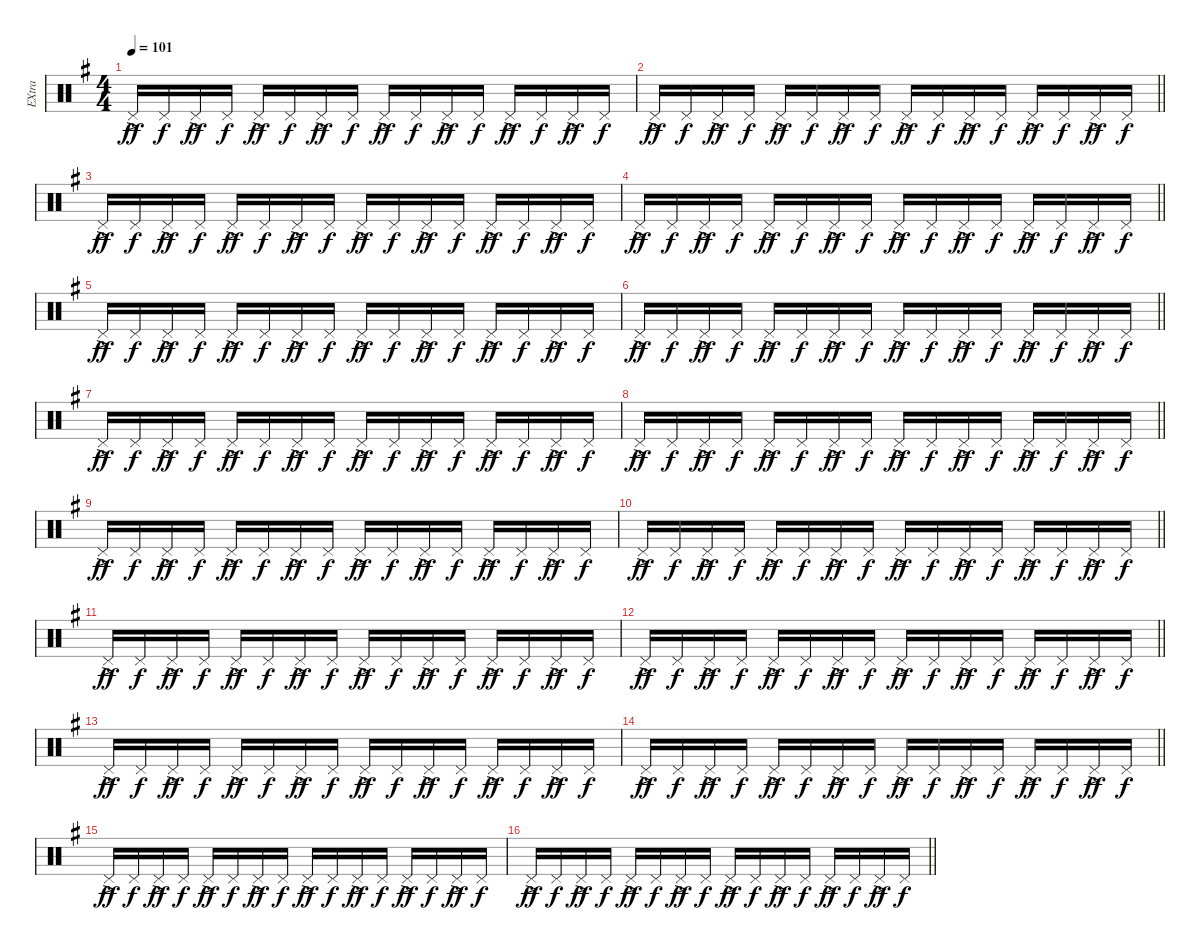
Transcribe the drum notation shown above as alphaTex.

\track ("EXtra" "EXtra") {instrument percussion}
\staff {score}
\articulation defaults
\ts (4 4)
\tempo 101
\clef neutral
\ks g "Pedal Hi-Hat (hit)"{ac}.16{dy ff} "Pedal Hi-Hat (hit)".16{dy f} "Pedal Hi-Hat (hit)"{ac}.16{dy ff} "Pedal Hi-Hat (hit)".16{dy f} "Pedal Hi-Hat (hit)"{ac}.16{dy ff} "Pedal Hi-Hat (hit)".16{dy f} "Pedal Hi-Hat (hit)"{ac}.16{dy ff} "Pedal Hi-Hat (hit)".16{dy f} "Pedal Hi-Hat (hit)"{ac}.16{dy ff} "Pedal Hi-Hat (hit)".16{dy f} "Pedal Hi-Hat (hit)"{ac}.16{dy ff} "Pedal Hi-Hat (hit)".16{dy f} "Pedal Hi-Hat (hit)"{ac}.16{dy ff} "Pedal Hi-Hat (hit)".16{dy f} "Pedal Hi-Hat (hit)"{ac}.16{dy ff} "Pedal Hi-Hat (hit)".16{dy f}
|
\barLineRight lightlight "Pedal Hi-Hat (hit)"{ac}.16{dy ff} "Pedal Hi-Hat (hit)".16{dy f} "Pedal Hi-Hat (hit)"{ac}.16{dy ff} "Pedal Hi-Hat (hit)".16{dy f} "Pedal Hi-Hat (hit)"{ac}.16{dy ff} "Pedal Hi-Hat (hit)".16{dy f} "Pedal Hi-Hat (hit)"{ac}.16{dy ff} "Pedal Hi-Hat (hit)".16{dy f} "Pedal Hi-Hat (hit)"{ac}.16{dy ff} "Pedal Hi-Hat (hit)".16{dy f} "Pedal Hi-Hat (hit)"{ac}.16{dy ff} "Pedal Hi-Hat (hit)".16{dy f} "Pedal Hi-Hat (hit)"{ac}.16{dy ff} "Pedal Hi-Hat (hit)".16{dy f} "Pedal Hi-Hat (hit)"{ac}.16{dy ff} "Pedal Hi-Hat (hit)".16{dy f}
|
"Pedal Hi-Hat (hit)"{ac}.16{dy ff} "Pedal Hi-Hat (hit)".16{dy f} "Pedal Hi-Hat (hit)"{ac}.16{dy ff} "Pedal Hi-Hat (hit)".16{dy f} "Pedal Hi-Hat (hit)"{ac}.16{dy ff} "Pedal Hi-Hat (hit)".16{dy f} "Pedal Hi-Hat (hit)"{ac}.16{dy ff} "Pedal Hi-Hat (hit)".16{dy f} "Pedal Hi-Hat (hit)"{ac}.16{dy ff} "Pedal Hi-Hat (hit)".16{dy f} "Pedal Hi-Hat (hit)"{ac}.16{dy ff} "Pedal Hi-Hat (hit)".16{dy f} "Pedal Hi-Hat (hit)"{ac}.16{dy ff} "Pedal Hi-Hat (hit)".16{dy f} "Pedal Hi-Hat (hit)"{ac}.16{dy ff} "Pedal Hi-Hat (hit)".16{dy f} |
\barLineRight lightlight "Pedal Hi-Hat (hit)"{ac}.16{dy ff} "Pedal Hi-Hat (hit)".16{dy f} "Pedal Hi-Hat (hit)"{ac}.16{dy ff} "Pedal Hi-Hat (hit)".16{dy f} "Pedal Hi-Hat (hit)"{ac}.16{dy ff} "Pedal Hi-Hat (hit)".16{dy f} "Pedal Hi-Hat (hit)"{ac}.16{dy ff} "Pedal Hi-Hat (hit)".16{dy f} "Pedal Hi-Hat (hit)"{ac}.16{dy ff} "Pedal Hi-Hat (hit)".16{dy f} "Pedal Hi-Hat (hit)"{ac}.16{dy ff} "Pedal Hi-Hat (hit)".16{dy f} "Pedal Hi-Hat (hit)"{ac}.16{dy ff} "Pedal Hi-Hat (hit)".16{dy f} "Pedal Hi-Hat (hit)"{ac}.16{dy ff} "Pedal Hi-Hat (hit)".16{dy f}
|
"Pedal Hi-Hat (hit)"{ac}.16{dy ff} "Pedal Hi-Hat (hit)".16{dy f} "Pedal Hi-Hat (hit)"{ac}.16{dy ff} "Pedal Hi-Hat (hit)".16{dy f} "Pedal Hi-Hat (hit)"{ac}.16{dy ff} "Pedal Hi-Hat (hit)".16{dy f} "Pedal Hi-Hat (hit)"{ac}.16{dy ff} "Pedal Hi-Hat (hit)".16{dy f} "Pedal Hi-Hat (hit)"{ac}.16{dy ff} "Pedal Hi-Hat (hit)".16{dy f} "Pedal Hi-Hat (hit)"{ac}.16{dy ff} "Pedal Hi-Hat (hit)".16{dy f} "Pedal Hi-Hat (hit)"{ac}.16{dy ff} "Pedal Hi-Hat (hit)".16{dy f} "Pedal Hi-Hat (hit)"{ac}.16{dy ff} "Pedal Hi-Hat (hit)".16{dy f} |
\barLineRight lightlight "Pedal Hi-Hat (hit)"{ac}.16{dy ff} "Pedal Hi-Hat (hit)".16{dy f} "Pedal Hi-Hat (hit)"{ac}.16{dy ff} "Pedal Hi-Hat (hit)".16{dy f} "Pedal Hi-Hat (hit)"{ac}.16{dy ff} "Pedal Hi-Hat (hit)".16{dy f} "Pedal Hi-Hat (hit)"{ac}.16{dy ff} "Pedal Hi-Hat (hit)".16{dy f} "Pedal Hi-Hat (hit)"{ac}.16{dy ff} "Pedal Hi-Hat (hit)".16{dy f} "Pedal Hi-Hat (hit)"{ac}.16{dy ff} "Pedal Hi-Hat (hit)".16{dy f} "Pedal Hi-Hat (hit)"{ac}.16{dy ff} "Pedal Hi-Hat (hit)".16{dy f} "Pedal Hi-Hat (hit)"{ac}.16{dy ff} "Pedal Hi-Hat (hit)".16{dy f}
|
"Pedal Hi-Hat (hit)"{ac}.16{dy ff} "Pedal Hi-Hat (hit)".16{dy f} "Pedal Hi-Hat (hit)"{ac}.16{dy ff} "Pedal Hi-Hat (hit)".16{dy f} "Pedal Hi-Hat (hit)"{ac}.16{dy ff} "Pedal Hi-Hat (hit)".16{dy f} "Pedal Hi-Hat (hit)"{ac}.16{dy ff} "Pedal Hi-Hat (hit)".16{dy f} "Pedal Hi-Hat (hit)"{ac}.16{dy ff} "Pedal Hi-Hat (hit)".16{dy f} "Pedal Hi-Hat (hit)"{ac}.16{dy ff} "Pedal Hi-Hat (hit)".16{dy f} "Pedal Hi-Hat (hit)"{ac}.16{dy ff} "Pedal Hi-Hat (hit)".16{dy f} "Pedal Hi-Hat (hit)"{ac}.16{dy ff} "Pedal Hi-Hat (hit)".16{dy f} |
\barLineRight lightlight "Pedal Hi-Hat (hit)"{ac}.16{dy ff} "Pedal Hi-Hat (hit)".16{dy f} "Pedal Hi-Hat (hit)"{ac}.16{dy ff} "Pedal Hi-Hat (hit)".16{dy f} "Pedal Hi-Hat (hit)"{ac}.16{dy ff} "Pedal Hi-Hat (hit)".16{dy f} "Pedal Hi-Hat (hit)"{ac}.16{dy ff} "Pedal Hi-Hat (hit)".16{dy f} "Pedal Hi-Hat (hit)"{ac}.16{dy ff} "Pedal Hi-Hat (hit)".16{dy f} "Pedal Hi-Hat (hit)"{ac}.16{dy ff} "Pedal Hi-Hat (hit)".16{dy f} "Pedal Hi-Hat (hit)"{ac}.16{dy ff} "Pedal Hi-Hat (hit)".16{dy f} "Pedal Hi-Hat (hit)"{ac}.16{dy ff} "Pedal Hi-Hat (hit)".16{dy f}
|
"Pedal Hi-Hat (hit)"{ac}.16{dy ff} "Pedal Hi-Hat (hit)".16{dy f} "Pedal Hi-Hat (hit)"{ac}.16{dy ff} "Pedal Hi-Hat (hit)".16{dy f} "Pedal Hi-Hat (hit)"{ac}.16{dy ff} "Pedal Hi-Hat (hit)".16{dy f} "Pedal Hi-Hat (hit)"{ac}.16{dy ff} "Pedal Hi-Hat (hit)".16{dy f} "Pedal Hi-Hat (hit)"{ac}.16{dy ff} "Pedal Hi-Hat (hit)".16{dy f} "Pedal Hi-Hat (hit)"{ac}.16{dy ff} "Pedal Hi-Hat (hit)".16{dy f} "Pedal Hi-Hat (hit)"{ac}.16{dy ff} "Pedal Hi-Hat (hit)".16{dy f} "Pedal Hi-Hat (hit)"{ac}.16{dy ff} "Pedal Hi-Hat (hit)".16{dy f} |
\barLineRight lightlight "Pedal Hi-Hat (hit)"{ac}.16{dy ff} "Pedal Hi-Hat (hit)".16{dy f} "Pedal Hi-Hat (hit)"{ac}.16{dy ff} "Pedal Hi-Hat (hit)".16{dy f} "Pedal Hi-Hat (hit)"{ac}.16{dy ff} "Pedal Hi-Hat (hit)".16{dy f} "Pedal Hi-Hat (hit)"{ac}.16{dy ff} "Pedal Hi-Hat (hit)".16{dy f} "Pedal Hi-Hat (hit)"{ac}.16{dy ff} "Pedal Hi-Hat (hit)".16{dy f} "Pedal Hi-Hat (hit)"{ac}.16{dy ff} "Pedal Hi-Hat (hit)".16{dy f} "Pedal Hi-Hat (hit)"{ac}.16{dy ff} "Pedal Hi-Hat (hit)".16{dy f} "Pedal Hi-Hat (hit)"{ac}.16{dy ff} "Pedal Hi-Hat (hit)".16{dy f}
|
"Pedal Hi-Hat (hit)"{ac}.16{dy ff} "Pedal Hi-Hat (hit)".16{dy f} "Pedal Hi-Hat (hit)"{ac}.16{dy ff} "Pedal Hi-Hat (hit)".16{dy f} "Pedal Hi-Hat (hit)"{ac}.16{dy ff} "Pedal Hi-Hat (hit)".16{dy f} "Pedal Hi-Hat (hit)"{ac}.16{dy ff} "Pedal Hi-Hat (hit)".16{dy f} "Pedal Hi-Hat (hit)"{ac}.16{dy ff} "Pedal Hi-Hat (hit)".16{dy f} "Pedal Hi-Hat (hit)"{ac}.16{dy ff} "Pedal Hi-Hat (hit)".16{dy f} "Pedal Hi-Hat (hit)"{ac}.16{dy ff} "Pedal Hi-Hat (hit)".16{dy f} "Pedal Hi-Hat (hit)"{ac}.16{dy ff} "Pedal Hi-Hat (hit)".16{dy f} |
\barLineRight lightlight "Pedal Hi-Hat (hit)"{ac}.16{dy ff} "Pedal Hi-Hat (hit)".16{dy f} "Pedal Hi-Hat (hit)"{ac}.16{dy ff} "Pedal Hi-Hat (hit)".16{dy f} "Pedal Hi-Hat (hit)"{ac}.16{dy ff} "Pedal Hi-Hat (hit)".16{dy f} "Pedal Hi-Hat (hit)"{ac}.16{dy ff} "Pedal Hi-Hat (hit)".16{dy f} "Pedal Hi-Hat (hit)"{ac}.16{dy ff} "Pedal Hi-Hat (hit)".16{dy f} "Pedal Hi-Hat (hit)"{ac}.16{dy ff} "Pedal Hi-Hat (hit)".16{dy f} "Pedal Hi-Hat (hit)"{ac}.16{dy ff} "Pedal Hi-Hat (hit)".16{dy f} "Pedal Hi-Hat (hit)"{ac}.16{dy ff} "Pedal Hi-Hat (hit)".16{dy f}
|
"Pedal Hi-Hat (hit)"{ac}.16{dy ff} "Pedal Hi-Hat (hit)".16{dy f} "Pedal Hi-Hat (hit)"{ac}.16{dy ff} "Pedal Hi-Hat (hit)".16{dy f} "Pedal Hi-Hat (hit)"{ac}.16{dy ff} "Pedal Hi-Hat (hit)".16{dy f} "Pedal Hi-Hat (hit)"{ac}.16{dy ff} "Pedal Hi-Hat (hit)".16{dy f} "Pedal Hi-Hat (hit)"{ac}.16{dy ff} "Pedal Hi-Hat (hit)".16{dy f} "Pedal Hi-Hat (hit)"{ac}.16{dy ff} "Pedal Hi-Hat (hit)".16{dy f} "Pedal Hi-Hat (hit)"{ac}.16{dy ff} "Pedal Hi-Hat (hit)".16{dy f} "Pedal Hi-Hat (hit)"{ac}.16{dy ff} "Pedal Hi-Hat (hit)".16{dy f} |
\barLineRight lightlight "Pedal Hi-Hat (hit)"{ac}.16{dy ff} "Pedal Hi-Hat (hit)".16{dy f} "Pedal Hi-Hat (hit)"{ac}.16{dy ff} "Pedal Hi-Hat (hit)".16{dy f} "Pedal Hi-Hat (hit)"{ac}.16{dy ff} "Pedal Hi-Hat (hit)".16{dy f} "Pedal Hi-Hat (hit)"{ac}.16{dy ff} "Pedal Hi-Hat (hit)".16{dy f} "Pedal Hi-Hat (hit)"{ac}.16{dy ff} "Pedal Hi-Hat (hit)".16{dy f} "Pedal Hi-Hat (hit)"{ac}.16{dy ff} "Pedal Hi-Hat (hit)".16{dy f} "Pedal Hi-Hat (hit)"{ac}.16{dy ff} "Pedal Hi-Hat (hit)".16{dy f} "Pedal Hi-Hat (hit)"{ac}.16{dy ff} "Pedal Hi-Hat (hit)".16{dy f}
|
"Pedal Hi-Hat (hit)"{ac}.16{dy ff} "Pedal Hi-Hat (hit)".16{dy f} "Pedal Hi-Hat (hit)"{ac}.16{dy ff} "Pedal Hi-Hat (hit)".16{dy f} "Pedal Hi-Hat (hit)"{ac}.16{dy ff} "Pedal Hi-Hat (hit)".16{dy f} "Pedal Hi-Hat (hit)"{ac}.16{dy ff} "Pedal Hi-Hat (hit)".16{dy f} "Pedal Hi-Hat (hit)"{ac}.16{dy ff} "Pedal Hi-Hat (hit)".16{dy f} "Pedal Hi-Hat (hit)"{ac}.16{dy ff} "Pedal Hi-Hat (hit)".16{dy f} "Pedal Hi-Hat (hit)"{ac}.16{dy ff} "Pedal Hi-Hat (hit)".16{dy f} "Pedal Hi-Hat (hit)"{ac}.16{dy ff} "Pedal Hi-Hat (hit)".16{dy f} |
\barLineRight lightlight "Pedal Hi-Hat (hit)"{ac}.16{dy ff} "Pedal Hi-Hat (hit)".16{dy f} "Pedal Hi-Hat (hit)"{ac}.16{dy ff} "Pedal Hi-Hat (hit)".16{dy f} "Pedal Hi-Hat (hit)"{ac}.16{dy ff} "Pedal Hi-Hat (hit)".16{dy f} "Pedal Hi-Hat (hit)"{ac}.16{dy ff} "Pedal Hi-Hat (hit)".16{dy f} "Pedal Hi-Hat (hit)"{ac}.16{dy ff} "Pedal Hi-Hat (hit)".16{dy f} "Pedal Hi-Hat (hit)"{ac}.16{dy ff} "Pedal Hi-Hat (hit)".16{dy f} "Pedal Hi-Hat (hit)"{ac}.16{dy ff} "Pedal Hi-Hat (hit)".16{dy f} "Pedal Hi-Hat (hit)"{ac}.16{dy ff} "Pedal Hi-Hat (hit)".16{dy f}
